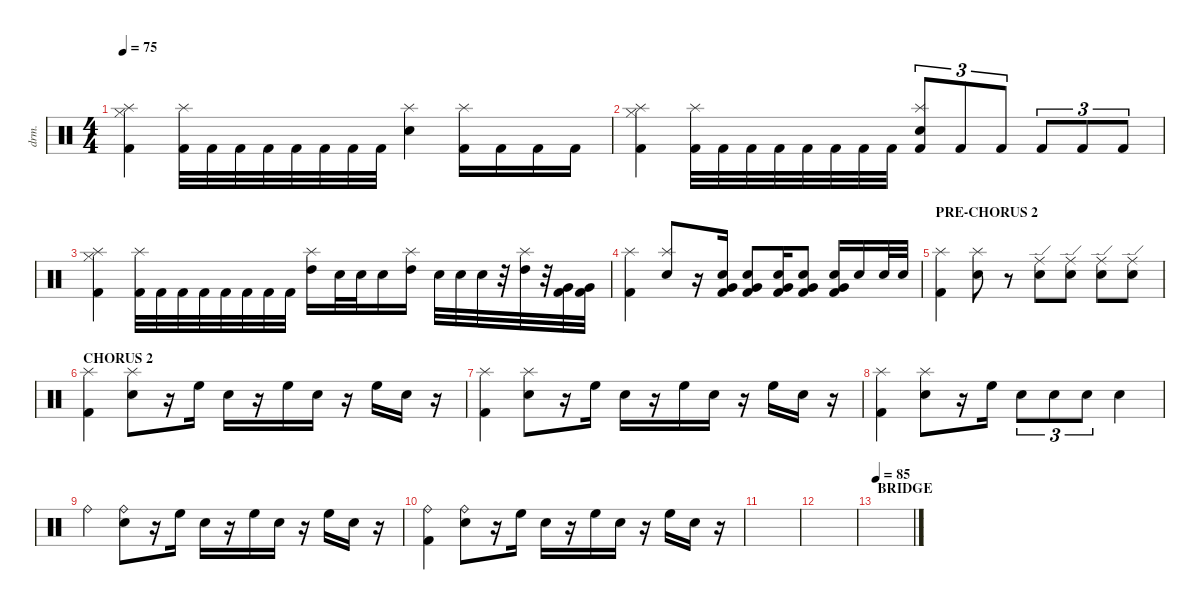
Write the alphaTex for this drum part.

\defaultSystemsLayout 4
\hideDynamics
\bracketExtendMode nobrackets
\otherSystemsTrackNameOrientation horizontal
\track ("Drumkit" "drm.") {instrument percussion}
\staff {score}
\articulation defaults
\ts (4 4)
\tempo 75
\clef neutral
\ks c
("Splash (hit)" "Kick (hit) 2" "Hi-Hat (closed)").4{dy mf beam Down} ("Splash (hit)" "Kick (hit) 2").32{beam Down} "Kick (hit) 2".32{beam Down} "Kick (hit) 2".32{beam Down} "Kick (hit) 2".32{beam Down} "Kick (hit) 2".32{beam Down} "Kick (hit) 2".32{beam Down} "Kick (hit) 2".32{beam Down} "Kick (hit) 2".32{beam Down} ("Splash (hit)" "Snare (hit) 2").4{beam Down} ("Splash (hit)" "Kick (hit) 2").16{beam Down} "Kick (hit) 2".16{beam Down} "Kick (hit) 2".16{beam Down} "Kick (hit) 2".16{beam Down} |
("Splash (hit)" "Kick (hit) 2" "Hi-Hat (closed)").4{beam Down} ("Splash (hit)" "Kick (hit) 2").32{beam Down} "Kick (hit) 2".32{beam Down} "Kick (hit) 2".32{beam Down} "Kick (hit) 2".32{beam Down} "Kick (hit) 2".32{beam Down} "Kick (hit) 2".32{beam Down} "Kick (hit) 2".32{beam Down} "Kick (hit) 2".32{beam Down} ("Kick (hit) 2" "Splash (hit)" "Snare (hit) 2").8{tu (3 2) beam Up} "Kick (hit) 2".8{tu (3 2) beam Up} "Kick (hit) 2".8{tu (3 2) beam Up} "Kick (hit) 2".8{tu (3 2) beam Up} "Kick (hit) 2".8{tu (3 2) beam Up} "Kick (hit) 2".8{tu (3 2) beam Up} |
("Splash (hit)" "Kick (hit) 2" "Hi-Hat (closed)").4{beam Down} ("Splash (hit)" "Kick (hit) 2").32{beam Down} "Kick (hit) 2".32{beam Down} "Kick (hit) 2".32{beam Down} "Kick (hit) 2".32{beam Down} "Kick (hit) 2".32{beam Down} "Kick (hit) 2".32{beam Down} "Kick (hit) 2".32{beam Down} "Kick (hit) 2".32{beam Down} ("High Tom (hit)" "Splash (hit)").16{beam Down} "Snare (hit) 2".32{beam Down} "Snare (hit) 2".32{beam Down} "Snare (hit) 2".16{beam Down} ("High Tom (hit)" "Splash (hit)").16{beam Down} "Snare (hit) 2".32{beam Down} "Snare (hit) 2".32{beam Down} "Snare (hit) 2".32{beam Down} r.32{beam Down} ("High Tom (hit)" "Splash (hit)").32{beam Down} r.32{beam Down} ("Very Low Tom (hit)" "Kick (hit) 2").32{beam Down} ("Very Low Tom (hit)" "Kick (hit) 2").32{beam Down} |
("Kick (hit) 2" "Splash (hit)").4{beam Down} ("Splash (hit)" "Snare (hit) 2").8{beam Up} r.16{beam Up} ("Kick (hit) 2" "Snare (hit) 2" "Very Low Tom (hit)").16{beam Up} ("Snare (hit) 2" "Kick (hit) 2" "Very Low Tom (hit)").8{beam Up} ("Kick (hit) 2" "Snare (hit) 2" "Very Low Tom (hit)").16{beam Up} ("Snare (hit) 2" "Kick (hit) 2" "Very Low Tom (hit)").8{beam Up} ("Kick (hit) 2" "Snare (hit) 2" "Very Low Tom (hit)").16{beam Up} "Snare (hit) 2".16{beam Up} "Snare (hit) 2".32{beam Up} "Snare (hit) 2".32{beam Up} |
\section ("" "PRE-CHORUS 2")
("Kick (hit) 2" "Splash (hit)").4{beam Down} ("Snare (hit) 2" "Splash (hit)").8{beam Down} r.8{beam Down} ("Snare (hit) 2" "Ride (edge)").8{beam Down} ("Snare (hit) 2" "Ride (edge)").8{beam Down} ("Snare (hit) 2" "Ride (edge)").8{beam Down} ("Snare (hit) 2" "Ride (edge)").8{beam Down} |
\section ("" "CHORUS 2")
("Kick (hit) 2" "Splash (hit)").4{beam Down} ("Snare (hit) 2" "Splash (hit)").8{beam Down} r.16{beam Down} "High Floor Tom (hit)".16{beam Down} "Snare (hit) 2".16{beam Down} r.16{beam Down} "High Floor Tom (hit)".16{beam Down} "Snare (hit) 2".16{beam Down} r.16{beam Down} "High Floor Tom (hit)".16{beam Down} "Snare (hit) 2".16{beam Down} r.16{beam Down} |
("Kick (hit) 2" "Splash (hit)").4{beam Down} ("Snare (hit) 2" "Splash (hit)").8{beam Down} r.16{beam Down} "High Floor Tom (hit)".16{beam Down} "Snare (hit) 2".16{beam Down} r.16{beam Down} "High Floor Tom (hit)".16{beam Down} "Snare (hit) 2".16{beam Down} r.16{beam Down} "High Floor Tom (hit)".16{beam Down} "Snare (hit) 2".16{beam Down} r.16{beam Down} |
("Kick (hit) 2" "Splash (hit)").4{beam Down} ("Snare (hit) 2" "Splash (hit)").8{beam Down} r.16{beam Down} "High Floor Tom (hit)".16{beam Down} "Snare (hit) 2".8{tu (3 2) beam Down} "Snare (hit) 2".8{tu (3 2) beam Down} "Snare (hit) 2".8{tu (3 2) beam Down} "Snare (hit) 2".4{beam Down} |
"Ride (bell)".4{beam Down} ("Snare (hit) 2" "Ride (bell)").8{beam Down} r.16{beam Down} "High Floor Tom (hit)".16{beam Down} "Snare (hit) 2".16{beam Down} r.16{beam Down} "High Floor Tom (hit)".16{beam Down} "Snare (hit) 2".16{beam Down} r.16{beam Down} "High Floor Tom (hit)".16{beam Down} "Snare (hit) 2".16{beam Down} r.16{beam Down} |
("Kick (hit) 2" "Ride (bell)").4{beam Down} ("Snare (hit) 2" "Ride (bell)").8{beam Down} r.16{beam Down} "High Floor Tom (hit)".16{beam Down} "Snare (hit) 2".16{beam Down} r.16{beam Down} "High Floor Tom (hit)".16{beam Down} "Snare (hit) 2".16{beam Down} r.16{beam Down} "High Floor Tom (hit)".16{beam Down} "Snare (hit) 2".16{beam Down} r.16{beam Down} |
|
|
\section ("" "BRIDGE")
\tempo 85
